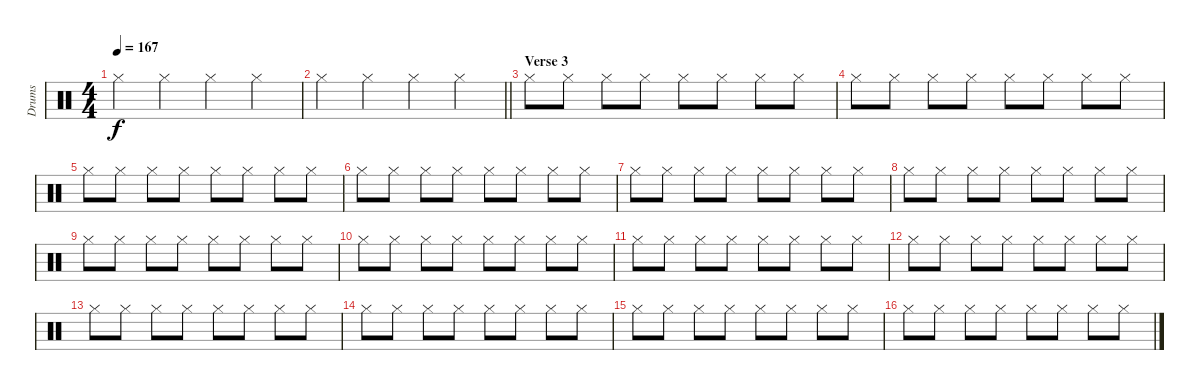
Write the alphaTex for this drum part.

\track ("Drums" "Drums") {instrument percussion}
\staff {score}
\articulation defaults
\ts (4 4)
\tempo 167
\clef neutral
\ks c "Hi-Hat (closed)".4{dy f} "Hi-Hat (closed)".4 "Hi-Hat (closed)".4 "Hi-Hat (closed)".4
|
\barLineRight lightlight "Hi-Hat (closed)".4 "Hi-Hat (closed)".4 "Hi-Hat (closed)".4 "Hi-Hat (closed)".4
|
\section ("" "Verse 3")
"Hi-Hat (closed)".8 "Hi-Hat (closed)".8 "Hi-Hat (closed)".8 "Hi-Hat (closed)".8 "Hi-Hat (closed)".8 "Hi-Hat (closed)".8 "Hi-Hat (closed)".8 "Hi-Hat (closed)".8 |
"Hi-Hat (closed)".8 "Hi-Hat (closed)".8 "Hi-Hat (closed)".8 "Hi-Hat (closed)".8 "Hi-Hat (closed)".8 "Hi-Hat (closed)".8 "Hi-Hat (closed)".8 "Hi-Hat (closed)".8 |
"Hi-Hat (closed)".8 "Hi-Hat (closed)".8 "Hi-Hat (closed)".8 "Hi-Hat (closed)".8 "Hi-Hat (closed)".8 "Hi-Hat (closed)".8 "Hi-Hat (closed)".8 "Hi-Hat (closed)".8 |
"Hi-Hat (closed)".8 "Hi-Hat (closed)".8 "Hi-Hat (closed)".8 "Hi-Hat (closed)".8 "Hi-Hat (closed)".8 "Hi-Hat (closed)".8 "Hi-Hat (closed)".8 "Hi-Hat (closed)".8 |
"Hi-Hat (closed)".8 "Hi-Hat (closed)".8 "Hi-Hat (closed)".8 "Hi-Hat (closed)".8 "Hi-Hat (closed)".8 "Hi-Hat (closed)".8 "Hi-Hat (closed)".8 "Hi-Hat (closed)".8 |
"Hi-Hat (closed)".8 "Hi-Hat (closed)".8 "Hi-Hat (closed)".8 "Hi-Hat (closed)".8 "Hi-Hat (closed)".8 "Hi-Hat (closed)".8 "Hi-Hat (closed)".8 "Hi-Hat (closed)".8 |
"Hi-Hat (closed)".8 "Hi-Hat (closed)".8 "Hi-Hat (closed)".8 "Hi-Hat (closed)".8 "Hi-Hat (closed)".8 "Hi-Hat (closed)".8 "Hi-Hat (closed)".8 "Hi-Hat (closed)".8 |
"Hi-Hat (closed)".8 "Hi-Hat (closed)".8 "Hi-Hat (closed)".8 "Hi-Hat (closed)".8 "Hi-Hat (closed)".8 "Hi-Hat (closed)".8 "Hi-Hat (closed)".8 "Hi-Hat (closed)".8 |
"Hi-Hat (closed)".8 "Hi-Hat (closed)".8 "Hi-Hat (closed)".8 "Hi-Hat (closed)".8 "Hi-Hat (closed)".8 "Hi-Hat (closed)".8 "Hi-Hat (closed)".8 "Hi-Hat (closed)".8 |
"Hi-Hat (closed)".8 "Hi-Hat (closed)".8 "Hi-Hat (closed)".8 "Hi-Hat (closed)".8 "Hi-Hat (closed)".8 "Hi-Hat (closed)".8 "Hi-Hat (closed)".8 "Hi-Hat (closed)".8 |
"Hi-Hat (closed)".8 "Hi-Hat (closed)".8 "Hi-Hat (closed)".8 "Hi-Hat (closed)".8 "Hi-Hat (closed)".8 "Hi-Hat (closed)".8 "Hi-Hat (closed)".8 "Hi-Hat (closed)".8 |
"Hi-Hat (closed)".8 "Hi-Hat (closed)".8 "Hi-Hat (closed)".8 "Hi-Hat (closed)".8 "Hi-Hat (closed)".8 "Hi-Hat (closed)".8 "Hi-Hat (closed)".8 "Hi-Hat (closed)".8 |
"Hi-Hat (closed)".8 "Hi-Hat (closed)".8 "Hi-Hat (closed)".8 "Hi-Hat (closed)".8 "Hi-Hat (closed)".8 "Hi-Hat (closed)".8 "Hi-Hat (closed)".8 "Hi-Hat (closed)".8 |
"Hi-Hat (closed)".8 "Hi-Hat (closed)".8 "Hi-Hat (closed)".8 "Hi-Hat (closed)".8 "Hi-Hat (closed)".8 "Hi-Hat (closed)".8 "Hi-Hat (closed)".8 "Hi-Hat (closed)".8
